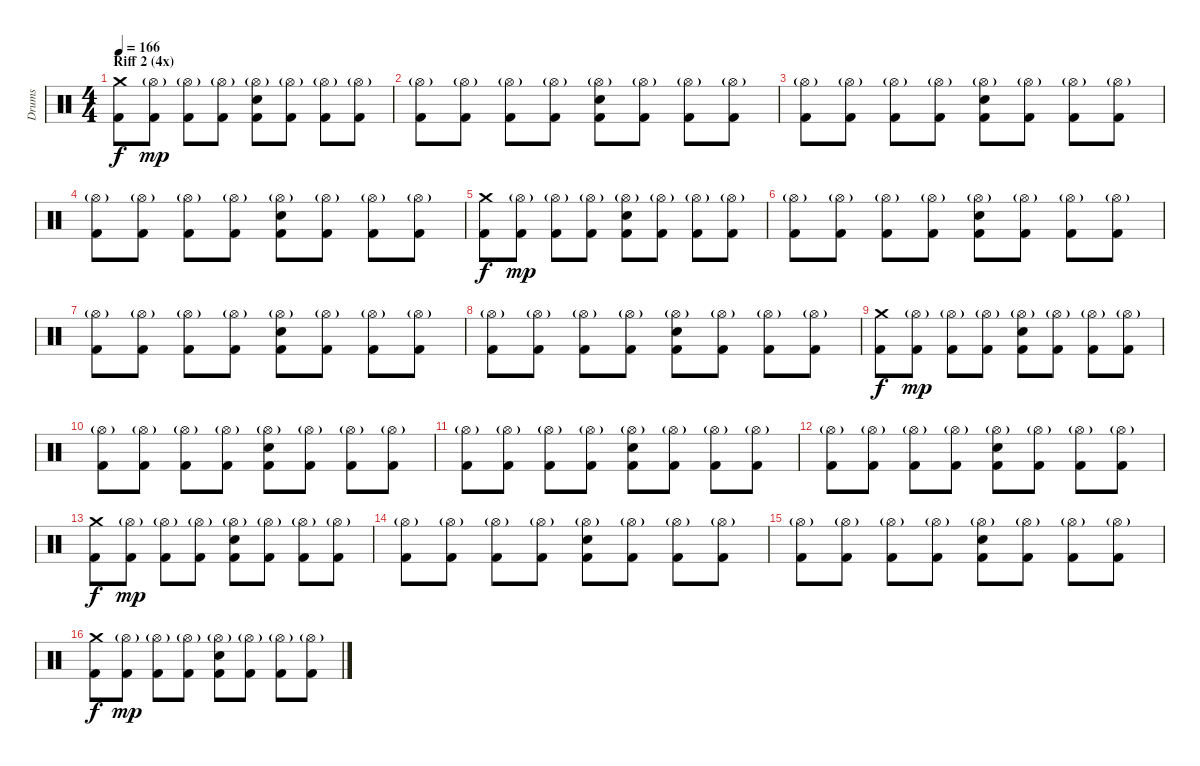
\track ("Drums" "Drums") {instrument percussion}
\staff {score}
\articulation defaults
\ts (4 4)
\section ("" "Riff 2 (4x)")
\tempo 166
\clef neutral
\ks c
("Crash medium (hit)" "Kick (hit) 2").8{dy f} ("Hi-Hat (open)"{g} "Kick (hit) 2").8{dy mp} ("Hi-Hat (open)"{g} "Kick (hit) 2").8 ("Hi-Hat (open)"{g} "Kick (hit) 2").8 ("Hi-Hat (open)"{g} "Electric Snare (hit)" "Kick (hit) 2").8 ("Hi-Hat (open)"{g} "Kick (hit) 2").8 ("Hi-Hat (open)"{g} "Kick (hit) 2").8 ("Hi-Hat (open)"{g} "Kick (hit) 2").8 |
("Hi-Hat (open)"{g} "Kick (hit) 2").8 ("Hi-Hat (open)"{g} "Kick (hit) 2").8 ("Hi-Hat (open)"{g} "Kick (hit) 2").8 ("Hi-Hat (open)"{g} "Kick (hit) 2").8 ("Hi-Hat (open)"{g} "Electric Snare (hit)" "Kick (hit) 2").8 ("Hi-Hat (open)"{g} "Kick (hit) 2").8 ("Hi-Hat (open)"{g} "Kick (hit) 2").8 ("Hi-Hat (open)"{g} "Kick (hit) 2").8 |
("Hi-Hat (open)"{g} "Kick (hit) 2").8 ("Hi-Hat (open)"{g} "Kick (hit) 2").8 ("Hi-Hat (open)"{g} "Kick (hit) 2").8 ("Hi-Hat (open)"{g} "Kick (hit) 2").8 ("Hi-Hat (open)"{g} "Electric Snare (hit)" "Kick (hit) 2").8 ("Hi-Hat (open)"{g} "Kick (hit) 2").8 ("Hi-Hat (open)"{g} "Kick (hit) 2").8 ("Hi-Hat (open)"{g} "Kick (hit) 2").8 |
("Hi-Hat (open)"{g} "Kick (hit) 2").8 ("Hi-Hat (open)"{g} "Kick (hit) 2").8 ("Hi-Hat (open)"{g} "Kick (hit) 2").8 ("Hi-Hat (open)"{g} "Kick (hit) 2").8 ("Hi-Hat (open)"{g} "Electric Snare (hit)" "Kick (hit) 2").8 ("Hi-Hat (open)"{g} "Kick (hit) 2").8 ("Hi-Hat (open)"{g} "Kick (hit) 2").8 ("Hi-Hat (open)"{g} "Kick (hit) 2").8 |
("Crash medium (hit)" "Kick (hit) 2").8{dy f} ("Hi-Hat (open)"{g} "Kick (hit) 2").8{dy mp} ("Hi-Hat (open)"{g} "Kick (hit) 2").8 ("Hi-Hat (open)"{g} "Kick (hit) 2").8 ("Hi-Hat (open)"{g} "Electric Snare (hit)" "Kick (hit) 2").8 ("Hi-Hat (open)"{g} "Kick (hit) 2").8 ("Hi-Hat (open)"{g} "Kick (hit) 2").8 ("Hi-Hat (open)"{g} "Kick (hit) 2").8 |
("Hi-Hat (open)"{g} "Kick (hit) 2").8 ("Hi-Hat (open)"{g} "Kick (hit) 2").8 ("Hi-Hat (open)"{g} "Kick (hit) 2").8 ("Hi-Hat (open)"{g} "Kick (hit) 2").8 ("Hi-Hat (open)"{g} "Electric Snare (hit)" "Kick (hit) 2").8 ("Hi-Hat (open)"{g} "Kick (hit) 2").8 ("Hi-Hat (open)"{g} "Kick (hit) 2").8 ("Hi-Hat (open)"{g} "Kick (hit) 2").8 |
("Hi-Hat (open)"{g} "Kick (hit) 2").8 ("Hi-Hat (open)"{g} "Kick (hit) 2").8 ("Hi-Hat (open)"{g} "Kick (hit) 2").8 ("Hi-Hat (open)"{g} "Kick (hit) 2").8 ("Hi-Hat (open)"{g} "Electric Snare (hit)" "Kick (hit) 2").8 ("Hi-Hat (open)"{g} "Kick (hit) 2").8 ("Hi-Hat (open)"{g} "Kick (hit) 2").8 ("Hi-Hat (open)"{g} "Kick (hit) 2").8 |
("Hi-Hat (open)"{g} "Kick (hit) 2").8 ("Hi-Hat (open)"{g} "Kick (hit) 2").8 ("Hi-Hat (open)"{g} "Kick (hit) 2").8 ("Hi-Hat (open)"{g} "Kick (hit) 2").8 ("Hi-Hat (open)"{g} "Electric Snare (hit)" "Kick (hit) 2").8 ("Hi-Hat (open)"{g} "Kick (hit) 2").8 ("Hi-Hat (open)"{g} "Kick (hit) 2").8 ("Hi-Hat (open)"{g} "Kick (hit) 2").8 |
("Crash medium (hit)" "Kick (hit) 2").8{dy f} ("Hi-Hat (open)"{g} "Kick (hit) 2").8{dy mp} ("Hi-Hat (open)"{g} "Kick (hit) 2").8 ("Hi-Hat (open)"{g} "Kick (hit) 2").8 ("Hi-Hat (open)"{g} "Electric Snare (hit)" "Kick (hit) 2").8 ("Hi-Hat (open)"{g} "Kick (hit) 2").8 ("Hi-Hat (open)"{g} "Kick (hit) 2").8 ("Hi-Hat (open)"{g} "Kick (hit) 2").8 |
("Hi-Hat (open)"{g} "Kick (hit) 2").8 ("Hi-Hat (open)"{g} "Kick (hit) 2").8 ("Hi-Hat (open)"{g} "Kick (hit) 2").8 ("Hi-Hat (open)"{g} "Kick (hit) 2").8 ("Hi-Hat (open)"{g} "Electric Snare (hit)" "Kick (hit) 2").8 ("Hi-Hat (open)"{g} "Kick (hit) 2").8 ("Hi-Hat (open)"{g} "Kick (hit) 2").8 ("Hi-Hat (open)"{g} "Kick (hit) 2").8 |
("Hi-Hat (open)"{g} "Kick (hit) 2").8 ("Hi-Hat (open)"{g} "Kick (hit) 2").8 ("Hi-Hat (open)"{g} "Kick (hit) 2").8 ("Hi-Hat (open)"{g} "Kick (hit) 2").8 ("Hi-Hat (open)"{g} "Electric Snare (hit)" "Kick (hit) 2").8 ("Hi-Hat (open)"{g} "Kick (hit) 2").8 ("Hi-Hat (open)"{g} "Kick (hit) 2").8 ("Hi-Hat (open)"{g} "Kick (hit) 2").8 |
("Hi-Hat (open)"{g} "Kick (hit) 2").8 ("Hi-Hat (open)"{g} "Kick (hit) 2").8 ("Hi-Hat (open)"{g} "Kick (hit) 2").8 ("Hi-Hat (open)"{g} "Kick (hit) 2").8 ("Hi-Hat (open)"{g} "Electric Snare (hit)" "Kick (hit) 2").8 ("Hi-Hat (open)"{g} "Kick (hit) 2").8 ("Hi-Hat (open)"{g} "Kick (hit) 2").8 ("Hi-Hat (open)"{g} "Kick (hit) 2").8 |
("Crash medium (hit)" "Kick (hit) 2").8{dy f} ("Hi-Hat (open)"{g} "Kick (hit) 2").8{dy mp} ("Hi-Hat (open)"{g} "Kick (hit) 2").8 ("Hi-Hat (open)"{g} "Kick (hit) 2").8 ("Hi-Hat (open)"{g} "Electric Snare (hit)" "Kick (hit) 2").8 ("Hi-Hat (open)"{g} "Kick (hit) 2").8 ("Hi-Hat (open)"{g} "Kick (hit) 2").8 ("Hi-Hat (open)"{g} "Kick (hit) 2").8 |
("Hi-Hat (open)"{g} "Kick (hit) 2").8 ("Hi-Hat (open)"{g} "Kick (hit) 2").8 ("Hi-Hat (open)"{g} "Kick (hit) 2").8 ("Hi-Hat (open)"{g} "Kick (hit) 2").8 ("Hi-Hat (open)"{g} "Electric Snare (hit)" "Kick (hit) 2").8 ("Hi-Hat (open)"{g} "Kick (hit) 2").8 ("Hi-Hat (open)"{g} "Kick (hit) 2").8 ("Hi-Hat (open)"{g} "Kick (hit) 2").8 |
("Hi-Hat (open)"{g} "Kick (hit) 2").8 ("Hi-Hat (open)"{g} "Kick (hit) 2").8 ("Hi-Hat (open)"{g} "Kick (hit) 2").8 ("Hi-Hat (open)"{g} "Kick (hit) 2").8 ("Hi-Hat (open)"{g} "Electric Snare (hit)" "Kick (hit) 2").8 ("Hi-Hat (open)"{g} "Kick (hit) 2").8 ("Hi-Hat (open)"{g} "Kick (hit) 2").8 ("Hi-Hat (open)"{g} "Kick (hit) 2").8 |
("Crash medium (hit)" "Kick (hit) 2").8{dy f} ("Hi-Hat (open)"{g} "Kick (hit) 2").8{dy mp} ("Hi-Hat (open)"{g} "Kick (hit) 2").8 ("Hi-Hat (open)"{g} "Kick (hit) 2").8 ("Hi-Hat (open)"{g} "Electric Snare (hit)" "Kick (hit) 2").8 ("Hi-Hat (open)"{g} "Kick (hit) 2").8 ("Hi-Hat (open)"{g} "Kick (hit) 2").8 ("Hi-Hat (open)"{g} "Kick (hit) 2").8
